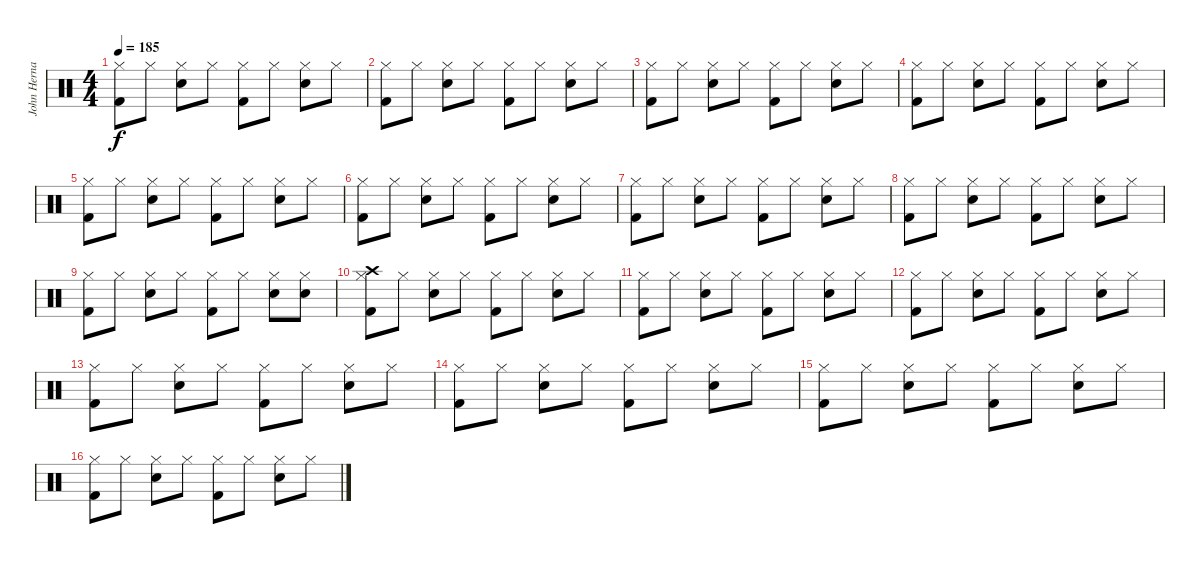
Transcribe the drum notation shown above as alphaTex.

\track ("John Hernandez" "John Herna") {instrument percussion}
\staff {score}
\articulation defaults
\ts (4 4)
\tempo 185
\clef neutral
\ks c
("Hi-Hat (closed)" "Kick (hit) 2").8{dy f} "Hi-Hat (closed)".8 ("Hi-Hat (closed)" "Snare (hit) 2").8 "Hi-Hat (closed)".8 ("Hi-Hat (closed)" "Kick (hit) 2").8 "Hi-Hat (closed)".8 ("Hi-Hat (closed)" "Snare (hit) 2").8 "Hi-Hat (closed)".8 |
("Hi-Hat (closed)" "Kick (hit) 2").8 "Hi-Hat (closed)".8 ("Hi-Hat (closed)" "Snare (hit) 2").8 "Hi-Hat (closed)".8 ("Hi-Hat (closed)" "Kick (hit) 2").8 "Hi-Hat (closed)".8 ("Hi-Hat (closed)" "Snare (hit) 2").8 "Hi-Hat (closed)".8 |
("Hi-Hat (closed)" "Kick (hit) 2").8 "Hi-Hat (closed)".8 ("Hi-Hat (closed)" "Snare (hit) 2").8 "Hi-Hat (closed)".8 ("Hi-Hat (closed)" "Kick (hit) 2").8 "Hi-Hat (closed)".8 ("Hi-Hat (closed)" "Snare (hit) 2").8 "Hi-Hat (closed)".8 |
("Hi-Hat (closed)" "Kick (hit) 2").8 "Hi-Hat (closed)".8 ("Hi-Hat (closed)" "Snare (hit) 2").8 "Hi-Hat (closed)".8 ("Hi-Hat (closed)" "Kick (hit) 2").8 "Hi-Hat (closed)".8 ("Hi-Hat (closed)" "Snare (hit) 2").8 "Hi-Hat (closed)".8 |
("Hi-Hat (closed)" "Kick (hit) 2").8 "Hi-Hat (closed)".8 ("Hi-Hat (closed)" "Snare (hit) 2").8 "Hi-Hat (closed)".8 ("Hi-Hat (closed)" "Kick (hit) 2").8 "Hi-Hat (closed)".8 ("Hi-Hat (closed)" "Snare (hit) 2").8 "Hi-Hat (closed)".8 |
("Hi-Hat (closed)" "Kick (hit) 2").8 "Hi-Hat (closed)".8 ("Hi-Hat (closed)" "Snare (hit) 2").8 "Hi-Hat (closed)".8 ("Hi-Hat (closed)" "Kick (hit) 2").8 "Hi-Hat (closed)".8 ("Hi-Hat (closed)" "Snare (hit) 2").8 "Hi-Hat (closed)".8 |
("Hi-Hat (closed)" "Kick (hit) 2").8 "Hi-Hat (closed)".8 ("Hi-Hat (closed)" "Snare (hit) 2").8 "Hi-Hat (closed)".8 ("Hi-Hat (closed)" "Kick (hit) 2").8 "Hi-Hat (closed)".8 ("Hi-Hat (closed)" "Snare (hit) 2").8 "Hi-Hat (closed)".8 |
("Hi-Hat (closed)" "Kick (hit) 2").8 "Hi-Hat (closed)".8 ("Hi-Hat (closed)" "Snare (hit) 2").8 "Hi-Hat (closed)".8 ("Hi-Hat (closed)" "Kick (hit) 2").8 "Hi-Hat (closed)".8 ("Hi-Hat (closed)" "Snare (hit) 2").8 "Hi-Hat (closed)".8 |
("Hi-Hat (closed)" "Kick (hit) 2").8 "Hi-Hat (closed)".8 ("Hi-Hat (closed)" "Snare (hit) 2").8 "Hi-Hat (closed)".8 ("Hi-Hat (closed)" "Kick (hit) 2").8 "Hi-Hat (closed)".8 ("Hi-Hat (closed)" "Snare (hit) 2").8 ("Hi-Hat (closed)" "Snare (hit) 2").8 |
("Crash high (hit)" "Hi-Hat (closed)" "Kick (hit) 2").8 "Hi-Hat (closed)".8 ("Hi-Hat (closed)" "Snare (hit) 2").8 "Hi-Hat (closed)".8 ("Hi-Hat (closed)" "Kick (hit) 2").8 "Hi-Hat (closed)".8 ("Hi-Hat (closed)" "Snare (hit) 2").8 "Hi-Hat (closed)".8 |
("Hi-Hat (closed)" "Kick (hit) 2").8 "Hi-Hat (closed)".8 ("Hi-Hat (closed)" "Snare (hit) 2").8 "Hi-Hat (closed)".8 ("Hi-Hat (closed)" "Kick (hit) 2").8 "Hi-Hat (closed)".8 ("Hi-Hat (closed)" "Snare (hit) 2").8 "Hi-Hat (closed)".8 |
("Hi-Hat (closed)" "Kick (hit) 2").8 "Hi-Hat (closed)".8 ("Hi-Hat (closed)" "Snare (hit) 2").8 "Hi-Hat (closed)".8 ("Hi-Hat (closed)" "Kick (hit) 2").8 "Hi-Hat (closed)".8 ("Hi-Hat (closed)" "Snare (hit) 2").8 "Hi-Hat (closed)".8 |
("Hi-Hat (closed)" "Kick (hit) 2").8 "Hi-Hat (closed)".8 ("Hi-Hat (closed)" "Snare (hit) 2").8 "Hi-Hat (closed)".8 ("Hi-Hat (closed)" "Kick (hit) 2").8 "Hi-Hat (closed)".8 ("Hi-Hat (closed)" "Snare (hit) 2").8 "Hi-Hat (closed)".8 |
("Hi-Hat (closed)" "Kick (hit) 2").8 "Hi-Hat (closed)".8 ("Hi-Hat (closed)" "Snare (hit) 2").8 "Hi-Hat (closed)".8 ("Hi-Hat (closed)" "Kick (hit) 2").8 "Hi-Hat (closed)".8 ("Hi-Hat (closed)" "Snare (hit) 2").8 "Hi-Hat (closed)".8 |
("Hi-Hat (closed)" "Kick (hit) 2").8 "Hi-Hat (closed)".8 ("Hi-Hat (closed)" "Snare (hit) 2").8 "Hi-Hat (closed)".8 ("Hi-Hat (closed)" "Kick (hit) 2").8 "Hi-Hat (closed)".8 ("Hi-Hat (closed)" "Snare (hit) 2").8 "Hi-Hat (closed)".8 |
("Hi-Hat (closed)" "Kick (hit) 2").8 "Hi-Hat (closed)".8 ("Hi-Hat (closed)" "Snare (hit) 2").8 "Hi-Hat (closed)".8 ("Hi-Hat (closed)" "Kick (hit) 2").8 "Hi-Hat (closed)".8 ("Hi-Hat (closed)" "Snare (hit) 2").8 "Hi-Hat (closed)".8
